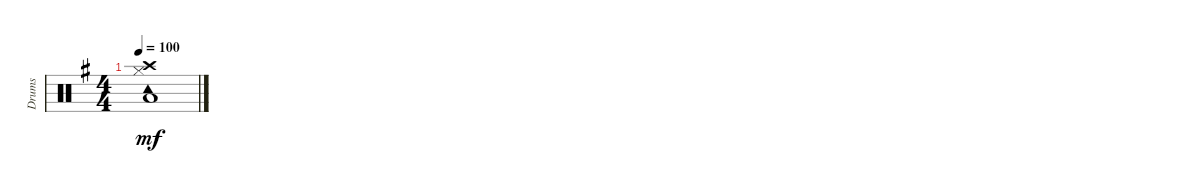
\track ("Drums" "Drums") {instrument percussion}
\staff {score}
\articulation defaults
\ts (4 4)
\tempo 100
\clef neutral
\ks g
("Low Floor Tom (hit)" "Hi-Hat (closed)" "Crash high (hit)" "Tambourine (hit)").1{dy mf}
